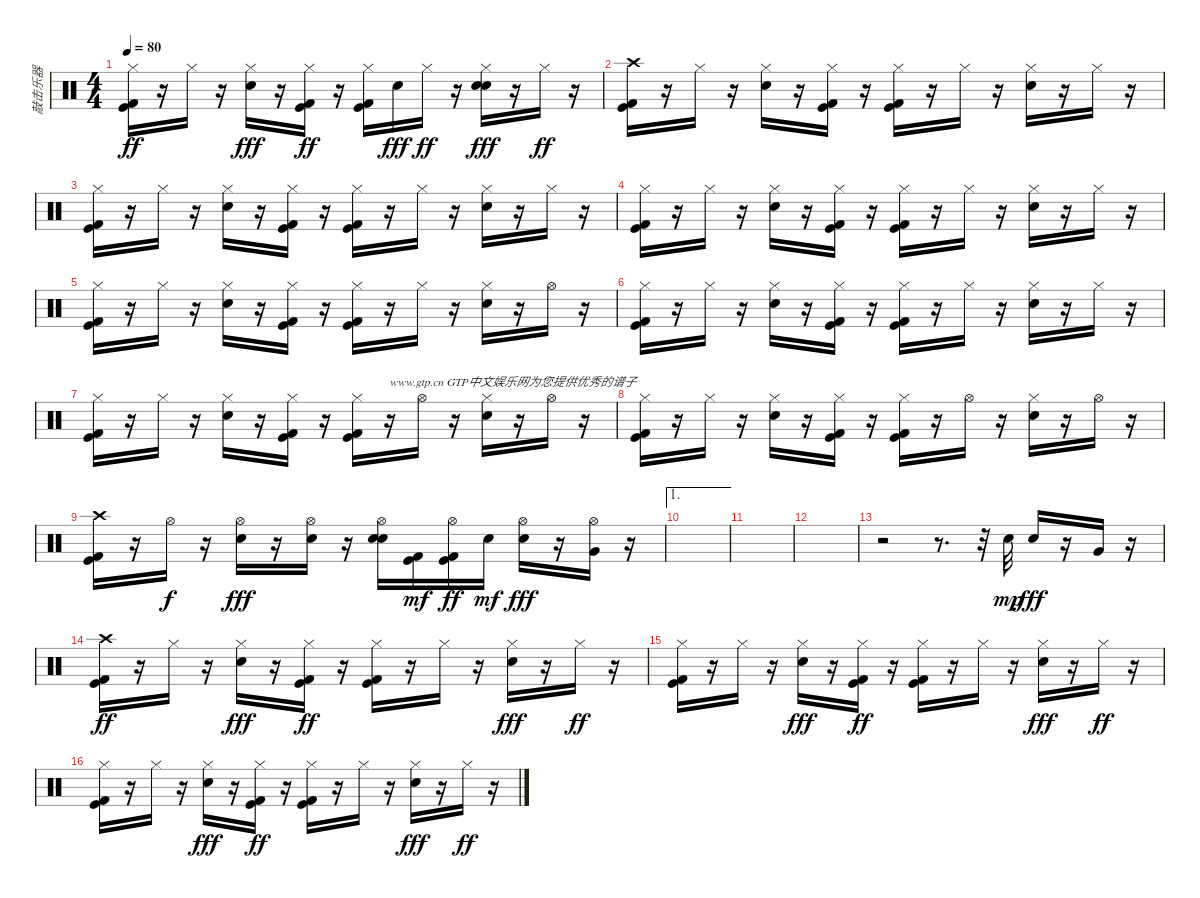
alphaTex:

\track ("敲击乐器" "敲击乐器") {instrument percussion}
\staff {score}
\articulation defaults
\ts (4 4)
\tempo 80
\clef neutral
\ks c
("Kick (hit)" "Kick (hit) 2" "Hi-Hat (closed)").16{dy ff} r.16 "Hi-Hat (closed)".16 r.16 ("Hi-Hat (closed)" "Electric Snare (hit)").16{dy fff} r.16 ("Kick (hit)" "Kick (hit) 2" "Hi-Hat (closed)").16{dy ff} r.16 ("Kick (hit)" "Kick (hit) 2" "Hi-Hat (closed)").16 "Electric Snare (hit)".16{dy fff} "Hi-Hat (closed)".16{dy ff} r.16 ("Electric Snare (hit)" "Hi-Hat (closed)" "Electric Snare (hit)").16{dy fff} r.16 "Hi-Hat (closed)".16{dy ff} r.16 |
("Crash high (hit)" "Kick (hit)" "Kick (hit) 2").16 r.16 "Hi-Hat (closed)".16 r.16 ("Electric Snare (hit)" "Hi-Hat (closed)").16 r.16 ("Kick (hit)" "Kick (hit) 2" "Hi-Hat (closed)").16 r.16 ("Kick (hit)" "Kick (hit) 2" "Hi-Hat (closed)").16 r.16 "Hi-Hat (closed)".16 r.16 ("Electric Snare (hit)" "Hi-Hat (closed)").16 r.16 "Hi-Hat (closed)".16 r.16 |
("Kick (hit) 2" "Kick (hit)" "Hi-Hat (closed)").16 r.16 "Hi-Hat (closed)".16 r.16 ("Electric Snare (hit)" "Hi-Hat (closed)").16 r.16 ("Kick (hit) 2" "Kick (hit)" "Hi-Hat (closed)").16 r.16 ("Kick (hit) 2" "Kick (hit)" "Hi-Hat (closed)").16 r.16 "Hi-Hat (closed)".16 r.16 ("Electric Snare (hit)" "Hi-Hat (closed)").16 r.16 "Hi-Hat (closed)".16 r.16 |
("Kick (hit)" "Kick (hit) 2" "Hi-Hat (closed)").16 r.16 "Hi-Hat (closed)".16 r.16 ("Electric Snare (hit)" "Hi-Hat (closed)").16 r.16 ("Kick (hit)" "Kick (hit) 2" "Hi-Hat (closed)").16 r.16 ("Kick (hit)" "Kick (hit) 2" "Hi-Hat (closed)").16 r.16 "Hi-Hat (closed)".16 r.16 ("Electric Snare (hit)" "Hi-Hat (closed)").16 r.16 "Hi-Hat (closed)".16 r.16 |
("Kick (hit) 2" "Kick (hit)" "Hi-Hat (closed)").16 r.16 "Hi-Hat (closed)".16 r.16 ("Electric Snare (hit)" "Hi-Hat (closed)").16 r.16 ("Kick (hit) 2" "Kick (hit)" "Hi-Hat (closed)").16 r.16 ("Kick (hit) 2" "Kick (hit)" "Hi-Hat (closed)").16 r.16 "Hi-Hat (closed)".16 r.16 ("Electric Snare (hit)" "Hi-Hat (closed)").16 r.16 "Hi-Hat (open)".16 r.16 |
("Kick (hit)" "Kick (hit) 2" "Hi-Hat (closed)").16 r.16 "Hi-Hat (closed)".16 r.16 ("Electric Snare (hit)" "Hi-Hat (closed)").16 r.16 ("Kick (hit)" "Kick (hit) 2" "Hi-Hat (closed)").16 r.16 ("Kick (hit)" "Kick (hit) 2" "Hi-Hat (closed)").16 r.16 "Hi-Hat (closed)".16 r.16 ("Electric Snare (hit)" "Hi-Hat (closed)").16 r.16 "Hi-Hat (closed)".16 r.16 |
("Kick (hit) 2" "Kick (hit)" "Hi-Hat (closed)").16 r.16 "Hi-Hat (closed)".16 r.16 ("Electric Snare (hit)" "Hi-Hat (closed)").16 r.16 ("Kick (hit) 2" "Kick (hit)" "Hi-Hat (closed)").16 r.16 ("Kick (hit) 2" "Kick (hit)" "Hi-Hat (closed)").16 r.16{txt "www.gtp.cn GTP中文娱乐网为您提供优秀的谱子"} "Hi-Hat (open)".16 r.16 ("Electric Snare (hit)" "Hi-Hat (closed)").16 r.16 "Hi-Hat (open)".16 r.16 |
("Kick (hit) 2" "Kick (hit)" "Hi-Hat (closed)").16 r.16 "Hi-Hat (closed)".16 r.16 ("Electric Snare (hit)" "Hi-Hat (closed)").16 r.16 ("Kick (hit) 2" "Kick (hit)" "Hi-Hat (closed)").16 r.16 ("Kick (hit) 2" "Kick (hit)" "Hi-Hat (closed)").16 r.16 "Hi-Hat (open)".16 r.16 ("Electric Snare (hit)" "Hi-Hat (closed)").16 r.16 "Hi-Hat (open)".16 r.16 |
("Kick (hit) 2" "Kick (hit)" "Crash high (hit)").16 r.16 "Hi-Hat (open)".16{dy f} r.16 ("Electric Snare (hit)" "Hi-Hat (open)").16{dy fff} r.16 ("Hi-Hat (open)" "Electric Snare (hit)").16 r.16 ("Hi-Hat (open)" "Electric Snare (hit)" "Electric Snare (hit)").16 ("Kick (hit)" "Kick (hit) 2").16{dy mf} ("Kick (hit)" "Kick (hit) 2" "Hi-Hat (open)").16{dy ff} "Electric Snare (hit)".16{dy mf} ("Electric Snare (hit)" "Hi-Hat (open)").16{dy fff} r.16 ("Hi-Hat (open)" "Very Low Tom (hit)").16 r.16 |
\ae 1
|
|
|
r.2 r.8{d} r.32 "Electric Snare (hit)".32{dy mp} "Electric Snare (hit)".16{dy fff} r.16 "Very Low Tom (hit)".16 r.16 |
("Crash high (hit)" "Kick (hit)" "Kick (hit) 2").16{dy ff} r.16 "Hi-Hat (closed)".16 r.16 ("Hi-Hat (closed)" "Electric Snare (hit)").16{dy fff} r.16 ("Kick (hit)" "Kick (hit) 2" "Hi-Hat (closed)").16{dy ff} r.16 ("Kick (hit)" "Kick (hit) 2" "Hi-Hat (closed)").16 r.16 "Hi-Hat (closed)".16 r.16 ("Hi-Hat (closed)" "Electric Snare (hit)").16{dy fff} r.16 "Hi-Hat (closed)".16{dy ff} r.16 |
("Kick (hit)" "Kick (hit) 2" "Hi-Hat (closed)").16 r.16 "Hi-Hat (closed)".16 r.16 ("Hi-Hat (closed)" "Electric Snare (hit)").16{dy fff} r.16 ("Kick (hit)" "Kick (hit) 2" "Hi-Hat (closed)").16{dy ff} r.16 ("Kick (hit)" "Kick (hit) 2" "Hi-Hat (closed)").16 r.16 "Hi-Hat (closed)".16 r.16 ("Hi-Hat (closed)" "Electric Snare (hit)").16{dy fff} r.16 "Hi-Hat (closed)".16{dy ff} r.16 |
("Kick (hit)" "Kick (hit) 2" "Hi-Hat (closed)").16 r.16 "Hi-Hat (closed)".16 r.16 ("Hi-Hat (closed)" "Electric Snare (hit)").16{dy fff} r.16 ("Kick (hit)" "Kick (hit) 2" "Hi-Hat (closed)").16{dy ff} r.16 ("Kick (hit)" "Kick (hit) 2" "Hi-Hat (closed)").16 r.16 "Hi-Hat (closed)".16 r.16 ("Hi-Hat (closed)" "Electric Snare (hit)").16{dy fff} r.16 "Hi-Hat (closed)".16{dy ff} r.16
